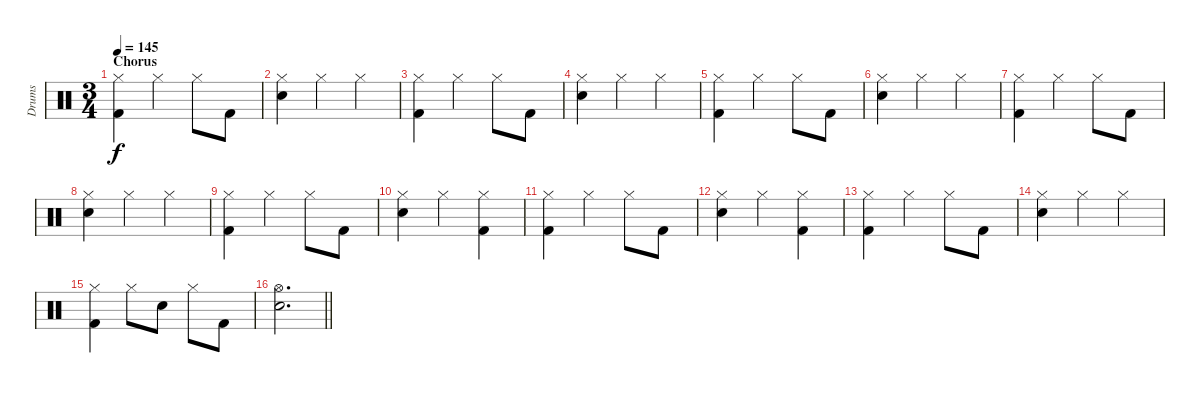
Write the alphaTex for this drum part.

\track ("Drums" "Drums") {instrument percussion}
\staff {score}
\articulation defaults
\ts (3 4)
\section ("" "Chorus")
\tempo 145
\clef neutral
\ks c
("Hi-Hat (closed)" "Kick (hit) 2").4{dy f} "Hi-Hat (closed)".4 "Hi-Hat (closed)".8 "Kick (hit) 2".8 |
("Hi-Hat (closed)" "Electric Snare (hit)").4 "Hi-Hat (closed)".4 "Hi-Hat (closed)".4 |
("Hi-Hat (closed)" "Kick (hit) 2").4 "Hi-Hat (closed)".4 "Hi-Hat (closed)".8 "Kick (hit) 2".8 |
("Hi-Hat (closed)" "Electric Snare (hit)").4 "Hi-Hat (closed)".4 "Hi-Hat (closed)".4 |
("Hi-Hat (closed)" "Kick (hit) 2").4 "Hi-Hat (closed)".4 "Hi-Hat (closed)".8 "Kick (hit) 2".8 |
("Hi-Hat (closed)" "Electric Snare (hit)").4 "Hi-Hat (closed)".4 "Hi-Hat (closed)".4 |
("Hi-Hat (closed)" "Kick (hit) 2").4 "Hi-Hat (closed)".4 "Hi-Hat (closed)".8 "Kick (hit) 2".8 |
("Hi-Hat (closed)" "Electric Snare (hit)").4 "Hi-Hat (closed)".4 "Hi-Hat (closed)".4 |
("Hi-Hat (closed)" "Kick (hit) 2").4 "Hi-Hat (closed)".4 "Hi-Hat (closed)".8 "Kick (hit) 2".8 |
("Hi-Hat (closed)" "Electric Snare (hit)").4 "Hi-Hat (closed)".4 ("Hi-Hat (closed)" "Kick (hit) 2").4 |
("Hi-Hat (closed)" "Kick (hit) 2").4 "Hi-Hat (closed)".4 "Hi-Hat (closed)".8 "Kick (hit) 2".8 |
("Hi-Hat (closed)" "Electric Snare (hit)").4 "Hi-Hat (closed)".4 ("Hi-Hat (closed)" "Kick (hit) 2").4 |
("Hi-Hat (closed)" "Kick (hit) 2").4 "Hi-Hat (closed)".4 "Hi-Hat (closed)".8 "Kick (hit) 2".8 |
("Hi-Hat (closed)" "Electric Snare (hit)").4 "Hi-Hat (closed)".4 "Hi-Hat (closed)".4 |
("Hi-Hat (closed)" "Kick (hit) 2").4 "Hi-Hat (closed)".8 "Electric Snare (hit)".8 "Hi-Hat (closed)".8 "Kick (hit) 2".8 |
\barLineRight lightlight
("Hi-Hat (open)" "Electric Snare (hit)").2{d}
